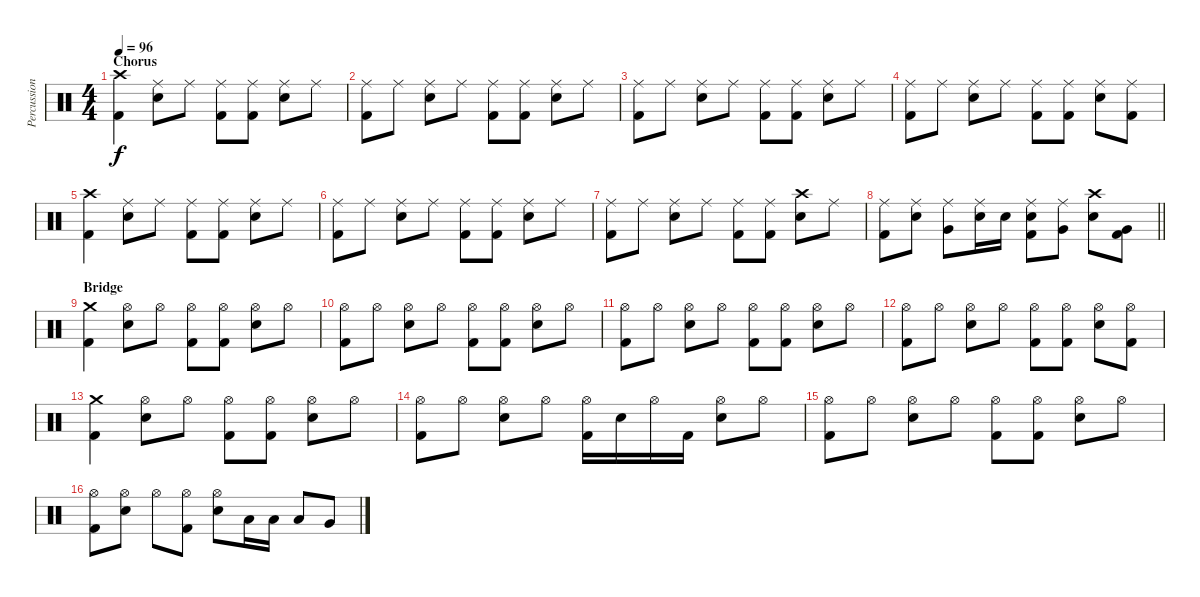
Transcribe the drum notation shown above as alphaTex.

\track ("Percussion" "Percussion") {instrument percussion}
\staff {score}
\articulation defaults
\ts (4 4)
\section ("" "Chorus")
\tempo 96
\clef neutral
\ks c
("Crash high (hit)" "Kick (hit) 2").4{dy f} ("Ride (middle)" "Electric Snare (hit)").8 "Ride (middle)".8 ("Ride (middle)" "Kick (hit) 2").8 ("Ride (middle)" "Kick (hit) 2").8 ("Ride (middle)" "Electric Snare (hit)").8 "Ride (middle)".8 |
("Ride (middle)" "Kick (hit) 2").8 "Ride (middle)".8 ("Ride (middle)" "Electric Snare (hit)").8 "Ride (middle)".8 ("Ride (middle)" "Kick (hit) 2").8 ("Ride (middle)" "Kick (hit) 2").8 ("Ride (middle)" "Electric Snare (hit)").8 "Ride (middle)".8 |
("Ride (middle)" "Kick (hit) 2").8 "Ride (middle)".8 ("Ride (middle)" "Electric Snare (hit)").8 "Ride (middle)".8 ("Ride (middle)" "Kick (hit) 2").8 ("Ride (middle)" "Kick (hit) 2").8 ("Ride (middle)" "Electric Snare (hit)").8 "Ride (middle)".8 |
("Ride (middle)" "Kick (hit) 2").8 "Ride (middle)".8 ("Ride (middle)" "Electric Snare (hit)").8 "Ride (middle)".8 ("Ride (middle)" "Kick (hit) 2").8 ("Ride (middle)" "Kick (hit) 2").8 ("Ride (middle)" "Electric Snare (hit)").8 ("Ride (middle)" "Kick (hit) 2").8 |
("Crash high (hit)" "Kick (hit) 2").4 ("Ride (middle)" "Electric Snare (hit)").8 "Ride (middle)".8 ("Ride (middle)" "Kick (hit) 2").8 ("Ride (middle)" "Kick (hit) 2").8 ("Ride (middle)" "Electric Snare (hit)").8 "Ride (middle)".8 |
("Ride (middle)" "Kick (hit) 2").8 "Ride (middle)".8 ("Ride (middle)" "Electric Snare (hit)").8 "Ride (middle)".8 ("Ride (middle)" "Kick (hit) 2").8 ("Ride (middle)" "Kick (hit) 2").8 ("Ride (middle)" "Electric Snare (hit)").8 "Ride (middle)".8 |
("Ride (middle)" "Kick (hit) 2").8 "Ride (middle)".8 ("Ride (middle)" "Electric Snare (hit)").8 "Ride (middle)".8 ("Ride (middle)" "Kick (hit) 2").8 ("Ride (middle)" "Kick (hit) 2").8 ("Crash high (hit)" "Electric Snare (hit)").8 "Ride (middle)".8 |
\barLineRight lightlight
("Ride (middle)" "Kick (hit) 2").8 ("Ride (middle)" "Electric Snare (hit)").8 ("Ride (middle)" "Very Low Tom (hit)").8 ("Ride (middle)" "Electric Snare (hit)").16 "Electric Snare (hit)".16 ("Ride (middle)" "Electric Snare (hit)" "Kick (hit) 2").8 ("Ride (middle)" "Very Low Tom (hit)").8 ("Crash high (hit)" "Electric Snare (hit)").8 ("Very Low Tom (hit)" "Kick (hit) 2").8 |
\section ("" "Bridge")
("Crash medium (hit)" "Kick (hit) 2").4 ("Hi-Hat (open)" "Electric Snare (hit)").8 "Hi-Hat (open)".8 ("Hi-Hat (open)" "Kick (hit) 2").8 ("Hi-Hat (open)" "Kick (hit) 2").8 ("Hi-Hat (open)" "Electric Snare (hit)").8 "Hi-Hat (open)".8 |
("Hi-Hat (open)" "Kick (hit) 2").8 "Hi-Hat (open)".8 ("Hi-Hat (open)" "Electric Snare (hit)").8 "Hi-Hat (open)".8 ("Hi-Hat (open)" "Kick (hit) 2").8 ("Hi-Hat (open)" "Kick (hit) 2").8 ("Hi-Hat (open)" "Electric Snare (hit)").8 "Hi-Hat (open)".8 |
("Hi-Hat (open)" "Kick (hit) 2").8 "Hi-Hat (open)".8 ("Hi-Hat (open)" "Electric Snare (hit)").8 "Hi-Hat (open)".8 ("Hi-Hat (open)" "Kick (hit) 2").8 ("Hi-Hat (open)" "Kick (hit) 2").8 ("Hi-Hat (open)" "Electric Snare (hit)").8 "Hi-Hat (open)".8 |
("Hi-Hat (open)" "Kick (hit) 2").8 "Hi-Hat (open)".8 ("Hi-Hat (open)" "Electric Snare (hit)").8 "Hi-Hat (open)".8 ("Hi-Hat (open)" "Kick (hit) 2").8 ("Hi-Hat (open)" "Kick (hit) 2").8 ("Hi-Hat (open)" "Electric Snare (hit)").8 ("Hi-Hat (open)" "Kick (hit) 2").8 |
("Crash medium (hit)" "Kick (hit) 2").4 ("Hi-Hat (open)" "Electric Snare (hit)").8 "Hi-Hat (open)".8 ("Hi-Hat (open)" "Kick (hit) 2").8 ("Hi-Hat (open)" "Kick (hit) 2").8 ("Hi-Hat (open)" "Electric Snare (hit)").8 "Hi-Hat (open)".8 |
("Hi-Hat (open)" "Kick (hit) 2").8 "Hi-Hat (open)".8 ("Hi-Hat (open)" "Electric Snare (hit)").8 "Hi-Hat (open)".8 ("Hi-Hat (open)" "Kick (hit) 2").16 "Electric Snare (hit)".16 "Hi-Hat (open)".16 "Kick (hit) 2".16 ("Hi-Hat (open)" "Electric Snare (hit)").8 "Hi-Hat (open)".8 |
("Hi-Hat (open)" "Kick (hit) 2").8 "Hi-Hat (open)".8 ("Hi-Hat (open)" "Electric Snare (hit)").8 "Hi-Hat (open)".8 ("Hi-Hat (open)" "Kick (hit) 2").8 ("Hi-Hat (open)" "Kick (hit) 2").8 ("Hi-Hat (open)" "Electric Snare (hit)").8 "Hi-Hat (open)".8 |
("Hi-Hat (open)" "Kick (hit) 2").8 ("Hi-Hat (open)" "Electric Snare (hit)").8 "Hi-Hat (open)".8 ("Hi-Hat (open)" "Kick (hit) 2").8 ("Hi-Hat (open)" "Electric Snare (hit)").8 "Low Tom (hit)".16 "Low Tom (hit)".16 "Low Tom (hit)".8 "Very Low Tom (hit)".8
